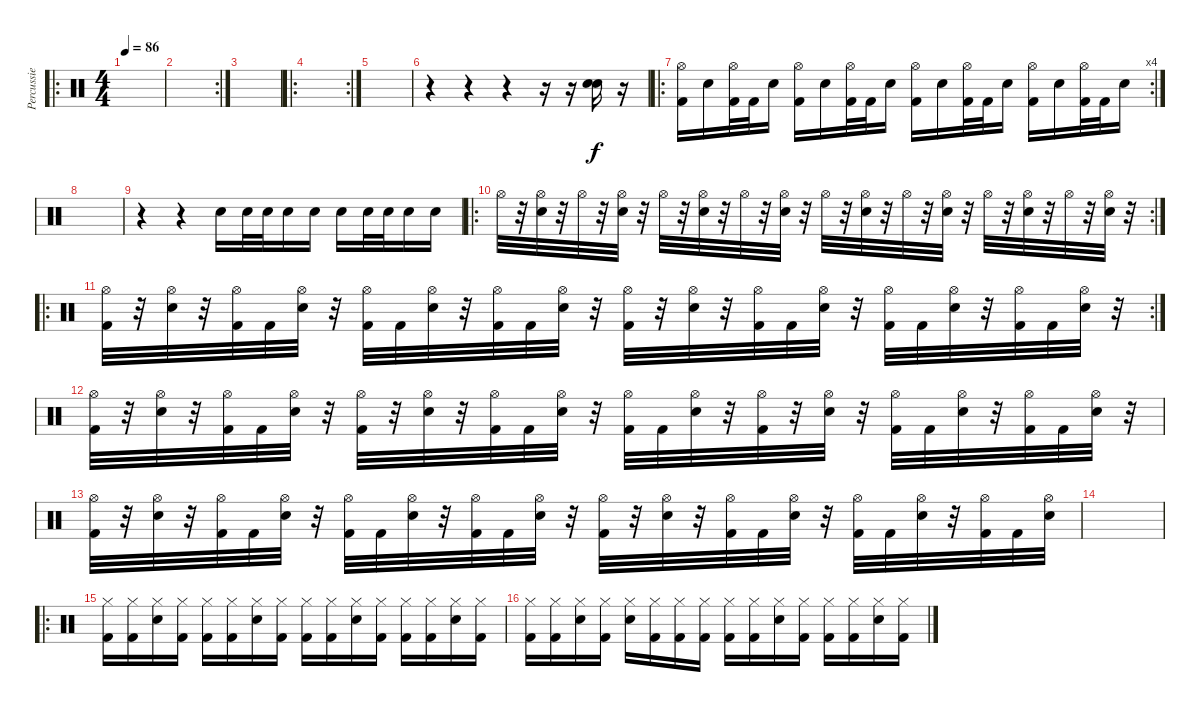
\track ("Percussie" "Percussie") {instrument percussion}
\staff {score}
\articulation defaults
\ro
\ts (4 4)
\tempo 86
\clef neutral
\ks c
|
\rc 2
|
|
\ro
\rc 2
|
|
r.4 r.4 r.4 r.16 r.16 ("Snare (hit) 2" "Snare (hit) 2").16{bd 480} r.16 |
\ro
\rc 4
("Hi-Hat (open)" "Kick (hit) 2").16{dy f} "Snare (hit) 2".16 ("Hi-Hat (open)" "Kick (hit) 2").32 "Kick (hit) 2".32 "Snare (hit) 2".16 ("Hi-Hat (open)" "Kick (hit) 2").16 "Snare (hit) 2".16 ("Hi-Hat (open)" "Kick (hit) 2").32 "Kick (hit) 2".32 "Snare (hit) 2".16 ("Hi-Hat (open)" "Kick (hit) 2").16 "Snare (hit) 2".16 ("Hi-Hat (open)" "Kick (hit) 2").32 "Kick (hit) 2".32 "Snare (hit) 2".16 ("Hi-Hat (open)" "Kick (hit) 2").16 "Snare (hit) 2".16 ("Hi-Hat (open)" "Kick (hit) 2").32 "Kick (hit) 2".32 "Snare (hit) 2".16 |
|
r.4 r.4 "Snare (hit) 2".16 "Snare (hit) 2".32 "Snare (hit) 2".32 "Snare (hit) 2".16 "Snare (hit) 2".16 "Snare (hit) 2".16 "Snare (hit) 2".32 "Snare (hit) 2".32 "Snare (hit) 2".16 "Snare (hit) 2".16 |
\ro
\rc 2 "Hi-Hat (open)".32
r.32 ("Hi-Hat (open)" "Electric Snare (hit)").32 r.32 "Hi-Hat (open)".32 r.32 ("Hi-Hat (open)" "Electric Snare (hit)").32 r.32 "Hi-Hat (open)".32 r.32 ("Hi-Hat (open)" "Electric Snare (hit)").32 r.32 "Hi-Hat (open)".32 r.32 ("Hi-Hat (open)" "Electric Snare (hit)").32 r.32 "Hi-Hat (open)".32 r.32 ("Hi-Hat (open)" "Electric Snare (hit)").32 r.32 "Hi-Hat (open)".32 r.32 ("Hi-Hat (open)" "Electric Snare (hit)").32 r.32 "Hi-Hat (open)".32 r.32 ("Hi-Hat (open)" "Electric Snare (hit)").32 r.32 "Hi-Hat (open)".32 r.32 ("Hi-Hat (open)" "Electric Snare (hit)").32 r.32 |
\ro
\rc 2
("Hi-Hat (open)" "Kick (hit) 2").32 r.32 ("Hi-Hat (open)" "Electric Snare (hit)").32 r.32 ("Hi-Hat (open)" "Kick (hit) 2").32 "Kick (hit) 2".32 ("Hi-Hat (open)" "Electric Snare (hit)").32 r.32 ("Hi-Hat (open)" "Kick (hit) 2").32 "Kick (hit) 2".32 ("Hi-Hat (open)" "Electric Snare (hit)").32 r.32 ("Hi-Hat (open)" "Kick (hit) 2").32 "Kick (hit) 2".32 ("Hi-Hat (open)" "Electric Snare (hit)").32 r.32 ("Hi-Hat (open)" "Kick (hit) 2").32 r.32 ("Hi-Hat (open)" "Electric Snare (hit)").32 r.32 ("Hi-Hat (open)" "Kick (hit) 2").32 "Kick (hit) 2".32 ("Hi-Hat (open)" "Electric Snare (hit)").32 r.32 ("Hi-Hat (open)" "Kick (hit) 2").32 "Kick (hit) 2".32 ("Hi-Hat (open)" "Electric Snare (hit)").32 r.32 ("Hi-Hat (open)" "Kick (hit) 2").32 "Kick (hit) 2".32 ("Hi-Hat (open)" "Electric Snare (hit)").32 r.32 |
("Hi-Hat (open)" "Kick (hit) 2").32 r.32 ("Hi-Hat (open)" "Electric Snare (hit)").32 r.32 ("Hi-Hat (open)" "Kick (hit) 2").32 "Kick (hit) 2".32 ("Hi-Hat (open)" "Electric Snare (hit)").32 r.32 ("Hi-Hat (open)" "Kick (hit) 2").32 r.32 ("Hi-Hat (open)" "Electric Snare (hit)").32 r.32 ("Hi-Hat (open)" "Kick (hit) 2").32 "Kick (hit) 2".32 ("Hi-Hat (open)" "Electric Snare (hit)").32 r.32 ("Hi-Hat (open)" "Kick (hit) 2").32 "Kick (hit) 2".32 ("Hi-Hat (open)" "Electric Snare (hit)").32 r.32 ("Hi-Hat (open)" "Kick (hit) 2").32 r.32 ("Hi-Hat (open)" "Electric Snare (hit)").32 r.32 ("Hi-Hat (open)" "Kick (hit) 2").32 "Kick (hit) 2".32 ("Hi-Hat (open)" "Electric Snare (hit)").32 r.32 ("Hi-Hat (open)" "Kick (hit) 2").32 "Kick (hit) 2".32 ("Hi-Hat (open)" "Electric Snare (hit)").32 r.32 |
("Hi-Hat (open)" "Kick (hit) 2").32 r.32 ("Hi-Hat (open)" "Electric Snare (hit)").32 r.32 ("Hi-Hat (open)" "Kick (hit) 2").32 "Kick (hit) 2".32 ("Hi-Hat (open)" "Electric Snare (hit)").32 r.32 ("Hi-Hat (open)" "Kick (hit) 2").32 "Kick (hit) 2".32 ("Hi-Hat (open)" "Electric Snare (hit)").32 r.32 ("Hi-Hat (open)" "Kick (hit) 2").32 "Kick (hit) 2".32 ("Hi-Hat (open)" "Electric Snare (hit)").32 r.32 ("Hi-Hat (open)" "Kick (hit) 2").32 r.32 ("Hi-Hat (open)" "Electric Snare (hit)").32 r.32 ("Hi-Hat (open)" "Kick (hit) 2").32 "Kick (hit) 2".32 ("Hi-Hat (open)" "Electric Snare (hit)").32 r.32 ("Hi-Hat (open)" "Kick (hit) 2").32 "Kick (hit) 2".32 ("Hi-Hat (open)" "Electric Snare (hit)").32 r.32 ("Hi-Hat (open)" "Kick (hit) 2").32 "Kick (hit) 2".32 ("Hi-Hat (open)" "Electric Snare (hit)").32 |
|
\ro
("Hi-Hat (closed)" "Kick (hit) 2").16 ("Hi-Hat (closed)" "Kick (hit) 2").16 ("Hi-Hat (closed)" "Snare (hit) 2").16 ("Hi-Hat (closed)" "Kick (hit) 2").16 ("Hi-Hat (closed)" "Kick (hit) 2").16 ("Hi-Hat (closed)" "Kick (hit) 2").16 ("Hi-Hat (closed)" "Snare (hit) 2").16 ("Hi-Hat (closed)" "Kick (hit) 2").16 ("Hi-Hat (closed)" "Kick (hit) 2").16 ("Hi-Hat (closed)" "Kick (hit) 2").16 ("Hi-Hat (closed)" "Snare (hit) 2").16 ("Hi-Hat (closed)" "Kick (hit) 2").16 ("Hi-Hat (closed)" "Kick (hit) 2").16 ("Hi-Hat (closed)" "Kick (hit) 2").16 ("Hi-Hat (closed)" "Snare (hit) 2").16 ("Hi-Hat (closed)" "Kick (hit) 2").16 |
("Hi-Hat (closed)" "Kick (hit) 2").16 ("Hi-Hat (closed)" "Kick (hit) 2").16 ("Hi-Hat (closed)" "Snare (hit) 2").16 ("Hi-Hat (closed)" "Kick (hit) 2").16 ("Hi-Hat (closed)" "Snare (hit) 2").16 ("Hi-Hat (closed)" "Kick (hit) 2").16 ("Hi-Hat (closed)" "Kick (hit) 2").16 ("Hi-Hat (closed)" "Kick (hit) 2").16 ("Hi-Hat (closed)" "Kick (hit) 2").16 ("Hi-Hat (closed)" "Kick (hit) 2").16 ("Hi-Hat (closed)" "Snare (hit) 2").16 ("Hi-Hat (closed)" "Kick (hit) 2").16 ("Hi-Hat (closed)" "Kick (hit) 2").16 ("Hi-Hat (closed)" "Kick (hit) 2").16 ("Hi-Hat (closed)" "Snare (hit) 2").16 ("Hi-Hat (closed)" "Kick (hit) 2").16
